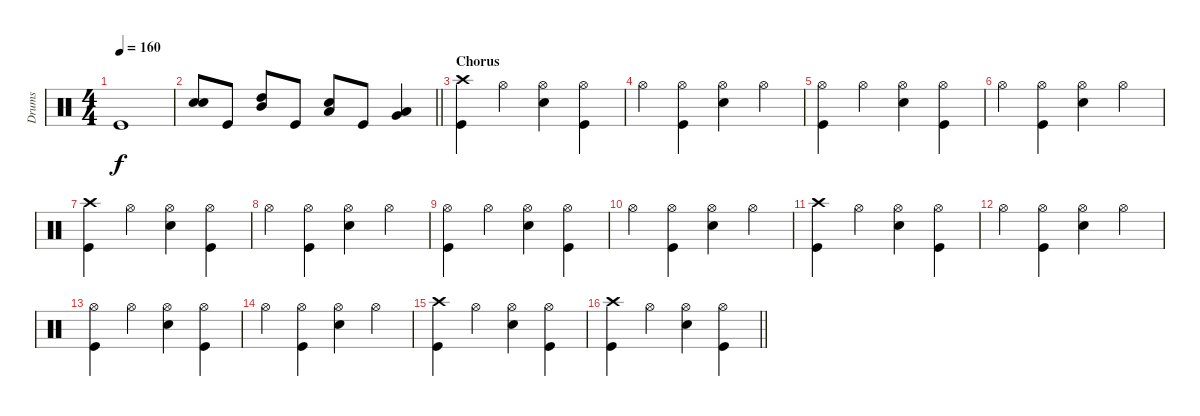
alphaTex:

\track ("Drums" "Drums") {instrument percussion}
\staff {score}
\articulation defaults
\ts (4 4)
\tempo 160
\clef neutral
\ks c "Kick (hit)".1{dy f}
|
\barLineRight lightlight
("Snare (hit) 2" "Snare (hit) 2").8 "Kick (hit)".8 ("High Tom (hit)" "Mid Tom (hit)").8 "Kick (hit)".8 ("Snare (hit) 2" "Low Tom (hit)").8 "Kick (hit)".8 ("Very Low Tom (hit)" "Low Floor Tom (hit)").4 |
\section ("" "Chorus")
("Kick (hit)" "Crash high (hit)").4 "Hi-Hat (open)".4 ("Snare (hit) 2" "Hi-Hat (open)").4 ("Kick (hit)" "Hi-Hat (open)").4 |
"Hi-Hat (open)".4 ("Hi-Hat (open)" "Kick (hit)").4 ("Snare (hit) 2" "Hi-Hat (open)").4 "Hi-Hat (open)".4 |
("Kick (hit)" "Hi-Hat (open)").4 "Hi-Hat (open)".4 ("Snare (hit) 2" "Hi-Hat (open)").4 ("Kick (hit)" "Hi-Hat (open)").4 |
"Hi-Hat (open)".4 ("Kick (hit)" "Hi-Hat (open)").4 ("Snare (hit) 2" "Hi-Hat (open)").4 "Hi-Hat (open)".4 |
("Kick (hit)" "Crash high (hit)").4 "Hi-Hat (open)".4 ("Snare (hit) 2" "Hi-Hat (open)").4 ("Kick (hit)" "Hi-Hat (open)").4 |
"Hi-Hat (open)".4 ("Hi-Hat (open)" "Kick (hit)").4 ("Snare (hit) 2" "Hi-Hat (open)").4 "Hi-Hat (open)".4 |
("Kick (hit)" "Hi-Hat (open)").4 "Hi-Hat (open)".4 ("Snare (hit) 2" "Hi-Hat (open)").4 ("Kick (hit)" "Hi-Hat (open)").4 |
"Hi-Hat (open)".4 ("Kick (hit)" "Hi-Hat (open)").4 ("Snare (hit) 2" "Hi-Hat (open)").4 "Hi-Hat (open)".4 |
("Kick (hit)" "Crash high (hit)").4 "Hi-Hat (open)".4 ("Snare (hit) 2" "Hi-Hat (open)").4 ("Kick (hit)" "Hi-Hat (open)").4 |
"Hi-Hat (open)".4 ("Hi-Hat (open)" "Kick (hit)").4 ("Snare (hit) 2" "Hi-Hat (open)").4 "Hi-Hat (open)".4 |
("Kick (hit)" "Hi-Hat (open)").4 "Hi-Hat (open)".4 ("Snare (hit) 2" "Hi-Hat (open)").4 ("Kick (hit)" "Hi-Hat (open)").4 |
"Hi-Hat (open)".4 ("Kick (hit)" "Hi-Hat (open)").4 ("Snare (hit) 2" "Hi-Hat (open)").4 "Hi-Hat (open)".4 |
("Kick (hit)" "Crash high (hit)").4 "Hi-Hat (open)".4 ("Snare (hit) 2" "Hi-Hat (open)").4 ("Kick (hit)" "Hi-Hat (open)").4 |
\barLineRight lightlight
("Crash high (hit)" "Kick (hit)").4 "Hi-Hat (open)".4 ("Snare (hit) 2" "Hi-Hat (open)").4 ("Hi-Hat (open)" "Kick (hit)").4
